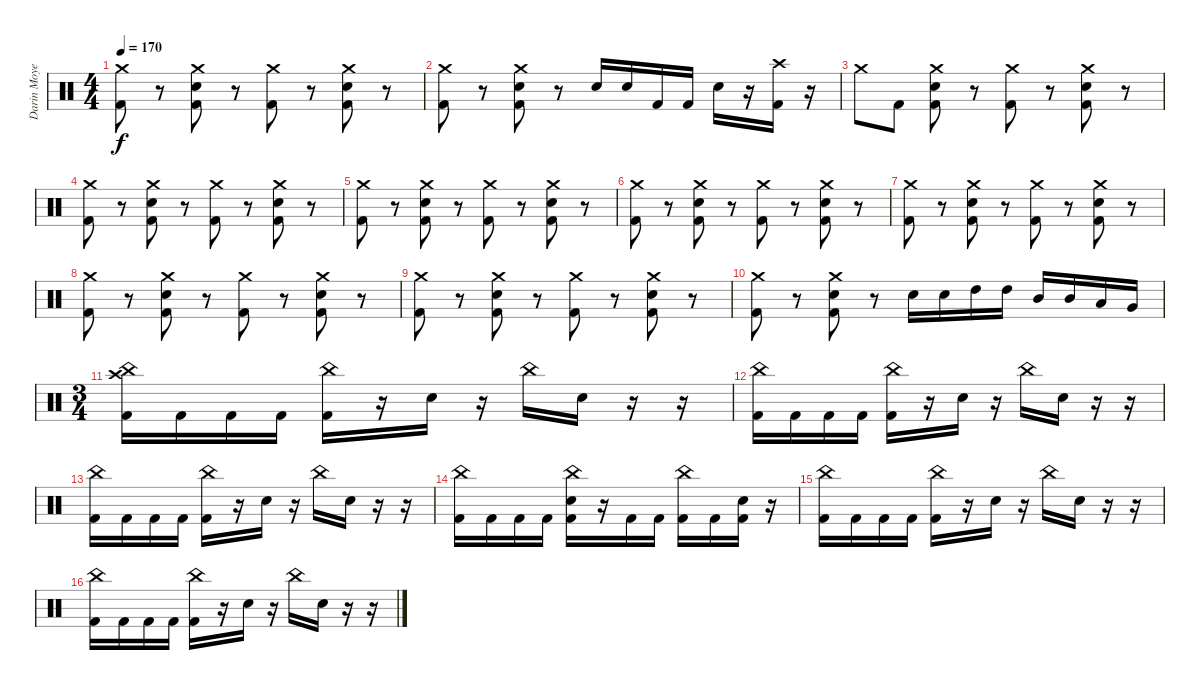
\track ("Darin Moyen" "Darin Moye") {instrument percussion}
\staff {score}
\articulation defaults
\ts (4 4)
\tempo 170
\clef neutral
\ks c
("Crash medium (hit)" "Kick (hit) 2").8{dy f} r.8 ("Crash medium (hit)" "Electric Snare (hit)" "Kick (hit) 2").8 r.8 ("Crash medium (hit)" "Kick (hit) 2").8 r.8 ("Crash medium (hit)" "Electric Snare (hit)" "Kick (hit) 2").8 r.8 |
("Crash medium (hit)" "Kick (hit) 2").8 r.8 ("Crash medium (hit)" "Electric Snare (hit)" "Kick (hit) 2").8 r.8 "Electric Snare (hit)".16 "Electric Snare (hit)".16 "Kick (hit) 2".16 "Kick (hit) 2".16 "Electric Snare (hit)".16 r.16 ("Crash high (hit)" "Kick (hit) 2").16 r.16 |
"Crash medium (hit)".8 "Kick (hit) 2".8 ("Crash medium (hit)" "Electric Snare (hit)" "Kick (hit) 2").8 r.8 ("Crash medium (hit)" "Kick (hit) 2").8 r.8 ("Crash medium (hit)" "Electric Snare (hit)" "Kick (hit) 2").8 r.8 |
("Crash medium (hit)" "Kick (hit) 2").8 r.8 ("Crash medium (hit)" "Electric Snare (hit)" "Kick (hit) 2").8 r.8 ("Crash medium (hit)" "Kick (hit) 2").8 r.8 ("Crash medium (hit)" "Electric Snare (hit)" "Kick (hit) 2").8 r.8 |
("Crash medium (hit)" "Kick (hit) 2").8 r.8 ("Crash medium (hit)" "Electric Snare (hit)" "Kick (hit) 2").8 r.8 ("Crash medium (hit)" "Kick (hit) 2").8 r.8 ("Crash medium (hit)" "Electric Snare (hit)" "Kick (hit) 2").8 r.8 |
("Crash medium (hit)" "Kick (hit) 2").8 r.8 ("Crash medium (hit)" "Electric Snare (hit)" "Kick (hit) 2").8 r.8 ("Crash medium (hit)" "Kick (hit) 2").8 r.8 ("Crash medium (hit)" "Electric Snare (hit)" "Kick (hit) 2").8 r.8 |
("Crash medium (hit)" "Kick (hit) 2").8 r.8 ("Crash medium (hit)" "Electric Snare (hit)" "Kick (hit) 2").8 r.8 ("Crash medium (hit)" "Kick (hit) 2").8 r.8 ("Crash medium (hit)" "Electric Snare (hit)" "Kick (hit) 2").8 r.8 |
("Crash medium (hit)" "Kick (hit) 2").8 r.8 ("Crash medium (hit)" "Electric Snare (hit)" "Kick (hit) 2").8 r.8 ("Crash medium (hit)" "Kick (hit) 2").8 r.8 ("Crash medium (hit)" "Electric Snare (hit)" "Kick (hit) 2").8 r.8 |
("Crash medium (hit)" "Kick (hit) 2").8 r.8 ("Crash medium (hit)" "Electric Snare (hit)" "Kick (hit) 2").8 r.8 ("Crash medium (hit)" "Kick (hit) 2").8 r.8 ("Crash medium (hit)" "Electric Snare (hit)" "Kick (hit) 2").8 r.8 |
("Crash medium (hit)" "Kick (hit) 2").8 r.8 ("Crash medium (hit)" "Electric Snare (hit)" "Kick (hit) 2").8 r.8 "Electric Snare (hit)".16 "Electric Snare (hit)".16 "High Tom (hit)".16 "High Tom (hit)".16 "Mid Tom (hit)".16 "Mid Tom (hit)".16 "Low Tom (hit)".16 "Very Low Tom (hit)".16 |
\ts (3 4)
("Crash high (hit)" "China (hit)" "Kick (hit) 2").16 "Kick (hit) 2".16 "Kick (hit) 2".16 "Kick (hit) 2".16 ("China (hit)" "Kick (hit) 2").16 r.16 "Electric Snare (hit)".16 r.16 "China (hit)".16 "Electric Snare (hit)".16 r.16 r.16 |
("China (hit)" "Kick (hit) 2").16 "Kick (hit) 2".16 "Kick (hit) 2".16 "Kick (hit) 2".16 ("China (hit)" "Kick (hit) 2").16 r.16 "Electric Snare (hit)".16 r.16 "China (hit)".16 "Electric Snare (hit)".16 r.16 r.16 |
("China (hit)" "Kick (hit) 2").16 "Kick (hit) 2".16 "Kick (hit) 2".16 "Kick (hit) 2".16 ("China (hit)" "Kick (hit) 2").16 r.16 "Electric Snare (hit)".16 r.16 "China (hit)".16 "Electric Snare (hit)".16 r.16 r.16 |
("China (hit)" "Kick (hit) 2").16 "Kick (hit) 2".16 "Kick (hit) 2".16 "Kick (hit) 2".16 ("China (hit)" "Electric Snare (hit)" "Kick (hit) 2").16 r.16 "Kick (hit) 2".16 "Kick (hit) 2".16 ("China (hit)" "Kick (hit) 2").16 "Kick (hit) 2".16 ("Electric Snare (hit)" "Kick (hit) 2").16 r.16 |
("China (hit)" "Kick (hit) 2").16 "Kick (hit) 2".16 "Kick (hit) 2".16 "Kick (hit) 2".16 ("China (hit)" "Kick (hit) 2").16 r.16 "Electric Snare (hit)".16 r.16 "China (hit)".16 "Electric Snare (hit)".16 r.16 r.16 |
("China (hit)" "Kick (hit) 2").16 "Kick (hit) 2".16 "Kick (hit) 2".16 "Kick (hit) 2".16 ("China (hit)" "Kick (hit) 2").16 r.16 "Electric Snare (hit)".16 r.16 "China (hit)".16 "Electric Snare (hit)".16 r.16 r.16
